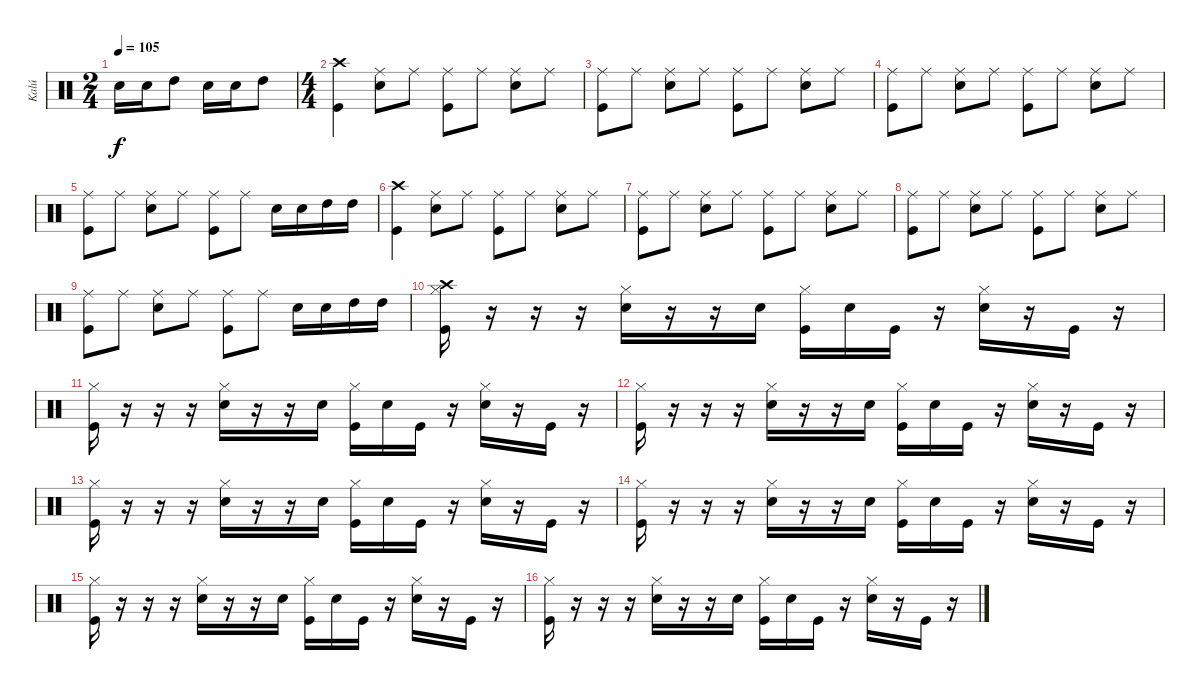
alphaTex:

\track ("Kalú" "Kalú") {instrument percussion}
\staff {score}
\articulation defaults
\ts (2 4)
\tempo 105
\clef neutral
\ks c "Electric Snare (hit)".16{dy f} "Electric Snare (hit)".16 "High Tom (hit)".8 "Electric Snare (hit)".16 "Electric Snare (hit)".16 "High Tom (hit)".8
|
\ts (4 4)
("Crash high (hit)" "Kick (hit)").4 ("Ride (middle)" "Electric Snare (hit)").8 "Ride (middle)".8 ("Ride (middle)" "Kick (hit)").8 "Ride (middle)".8 ("Ride (middle)" "Electric Snare (hit)").8 "Ride (middle)".8 |
("Ride (middle)" "Kick (hit)").8 "Ride (middle)".8 ("Ride (middle)" "Electric Snare (hit)").8 "Ride (middle)".8 ("Ride (middle)" "Kick (hit)").8 "Ride (middle)".8 ("Ride (middle)" "Electric Snare (hit)").8 "Ride (middle)".8 |
("Ride (middle)" "Kick (hit)").8 "Ride (middle)".8 ("Ride (middle)" "Electric Snare (hit)").8 "Ride (middle)".8 ("Ride (middle)" "Kick (hit)").8 "Ride (middle)".8 ("Ride (middle)" "Electric Snare (hit)").8 "Ride (middle)".8 |
("Ride (middle)" "Kick (hit)").8 "Ride (middle)".8 ("Ride (middle)" "Electric Snare (hit)").8 "Ride (middle)".8 ("Ride (middle)" "Kick (hit)").8 "Ride (middle)".8 "Electric Snare (hit)".16 "Electric Snare (hit)".16 "High Tom (hit)".16 "High Tom (hit)".16 |
("Crash high (hit)" "Kick (hit)").4 ("Ride (middle)" "Electric Snare (hit)").8 "Ride (middle)".8 ("Ride (middle)" "Kick (hit)").8 "Ride (middle)".8 ("Ride (middle)" "Electric Snare (hit)").8 "Ride (middle)".8 |
("Ride (middle)" "Kick (hit)").8 "Ride (middle)".8 ("Ride (middle)" "Electric Snare (hit)").8 "Ride (middle)".8 ("Ride (middle)" "Kick (hit)").8 "Ride (middle)".8 ("Ride (middle)" "Electric Snare (hit)").8 "Ride (middle)".8 |
("Ride (middle)" "Kick (hit)").8 "Ride (middle)".8 ("Ride (middle)" "Electric Snare (hit)").8 "Ride (middle)".8 ("Ride (middle)" "Kick (hit)").8 "Ride (middle)".8 ("Ride (middle)" "Electric Snare (hit)").8 "Ride (middle)".8 |
("Ride (middle)" "Kick (hit)").8 "Ride (middle)".8 ("Ride (middle)" "Electric Snare (hit)").8 "Ride (middle)".8 ("Ride (middle)" "Kick (hit)").8 "Ride (middle)".8 "Electric Snare (hit)".16 "Electric Snare (hit)".16 "High Tom (hit)".16 "High Tom (hit)".16 |
("Hi-Hat (closed)" "Kick (hit)" "Crash high (hit)").16 r.16 r.16 r.16 ("Hi-Hat (closed)" "Electric Snare (hit)").16 r.16 r.16 "Electric Snare (hit)".16 ("Hi-Hat (closed)" "Kick (hit)").16 "Electric Snare (hit)".16 "Kick (hit)".16 r.16 ("Hi-Hat (closed)" "Electric Snare (hit)").16 r.16 "Kick (hit)".16 r.16 |
("Hi-Hat (closed)" "Kick (hit)").16 r.16 r.16 r.16 ("Hi-Hat (closed)" "Electric Snare (hit)").16 r.16 r.16 "Electric Snare (hit)".16 ("Hi-Hat (closed)" "Kick (hit)").16 "Electric Snare (hit)".16 "Kick (hit)".16 r.16 ("Hi-Hat (closed)" "Electric Snare (hit)").16 r.16 "Kick (hit)".16 r.16 |
("Hi-Hat (closed)" "Kick (hit)").16 r.16 r.16 r.16 ("Hi-Hat (closed)" "Electric Snare (hit)").16 r.16 r.16 "Electric Snare (hit)".16 ("Hi-Hat (closed)" "Kick (hit)").16 "Electric Snare (hit)".16 "Kick (hit)".16 r.16 ("Hi-Hat (closed)" "Electric Snare (hit)").16 r.16 "Kick (hit)".16 r.16 |
("Hi-Hat (closed)" "Kick (hit)").16 r.16 r.16 r.16 ("Hi-Hat (closed)" "Electric Snare (hit)").16 r.16 r.16 "Electric Snare (hit)".16 ("Hi-Hat (closed)" "Kick (hit)").16 "Electric Snare (hit)".16 "Kick (hit)".16 r.16 ("Hi-Hat (closed)" "Electric Snare (hit)").16 r.16 "Kick (hit)".16 r.16 |
("Hi-Hat (closed)" "Kick (hit)").16 r.16 r.16 r.16 ("Hi-Hat (closed)" "Electric Snare (hit)").16 r.16 r.16 "Electric Snare (hit)".16 ("Hi-Hat (closed)" "Kick (hit)").16 "Electric Snare (hit)".16 "Kick (hit)".16 r.16 ("Hi-Hat (closed)" "Electric Snare (hit)").16 r.16 "Kick (hit)".16 r.16 |
("Hi-Hat (closed)" "Kick (hit)").16 r.16 r.16 r.16 ("Hi-Hat (closed)" "Electric Snare (hit)").16 r.16 r.16 "Electric Snare (hit)".16 ("Hi-Hat (closed)" "Kick (hit)").16 "Electric Snare (hit)".16 "Kick (hit)".16 r.16 ("Hi-Hat (closed)" "Electric Snare (hit)").16 r.16 "Kick (hit)".16 r.16 |
("Hi-Hat (closed)" "Kick (hit)").16 r.16 r.16 r.16 ("Hi-Hat (closed)" "Electric Snare (hit)").16 r.16 r.16 "Electric Snare (hit)".16 ("Hi-Hat (closed)" "Kick (hit)").16 "Electric Snare (hit)".16 "Kick (hit)".16 r.16 ("Hi-Hat (closed)" "Electric Snare (hit)").16 r.16 "Kick (hit)".16 r.16
